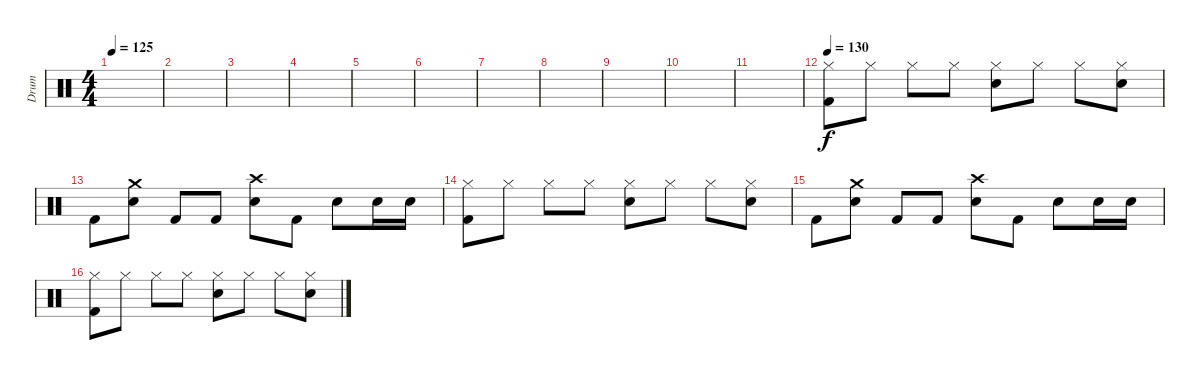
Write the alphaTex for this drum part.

\track ("Drum" "Drum") {instrument percussion}
\staff {score}
\articulation defaults
\ts (4 4)
\tempo 125
\clef neutral
\ks c
|
|
|
|
|
|
|
|
|
|
|
\tempo 130
("Hi-Hat (closed)" "Kick (hit) 2").8 "Hi-Hat (closed)".8 "Hi-Hat (closed)".8 "Hi-Hat (closed)".8 ("Hi-Hat (closed)" "Electric Snare (hit)").8 "Hi-Hat (closed)".8 "Hi-Hat (closed)".8 ("Hi-Hat (closed)" "Electric Snare (hit)").8 |
"Kick (hit) 2".8 ("Crash medium (hit)" "Electric Snare (hit)").8 "Kick (hit) 2".8 "Kick (hit) 2".8 ("Crash high (hit)" "Electric Snare (hit)").8 "Kick (hit) 2".8 "Electric Snare (hit)".8 "Electric Snare (hit)".16 "Electric Snare (hit)".16 |
("Hi-Hat (closed)" "Kick (hit) 2").8 "Hi-Hat (closed)".8 "Hi-Hat (closed)".8 "Hi-Hat (closed)".8 ("Hi-Hat (closed)" "Electric Snare (hit)").8 "Hi-Hat (closed)".8 "Hi-Hat (closed)".8 ("Hi-Hat (closed)" "Electric Snare (hit)").8 |
"Kick (hit) 2".8 ("Crash medium (hit)" "Electric Snare (hit)").8 "Kick (hit) 2".8 "Kick (hit) 2".8 ("Crash high (hit)" "Electric Snare (hit)").8 "Kick (hit) 2".8 "Electric Snare (hit)".8 "Electric Snare (hit)".16 "Electric Snare (hit)".16 |
("Hi-Hat (closed)" "Kick (hit) 2").8 "Hi-Hat (closed)".8 "Hi-Hat (closed)".8 "Hi-Hat (closed)".8 ("Hi-Hat (closed)" "Electric Snare (hit)").8 "Hi-Hat (closed)".8 "Hi-Hat (closed)".8 ("Hi-Hat (closed)" "Electric Snare (hit)").8
